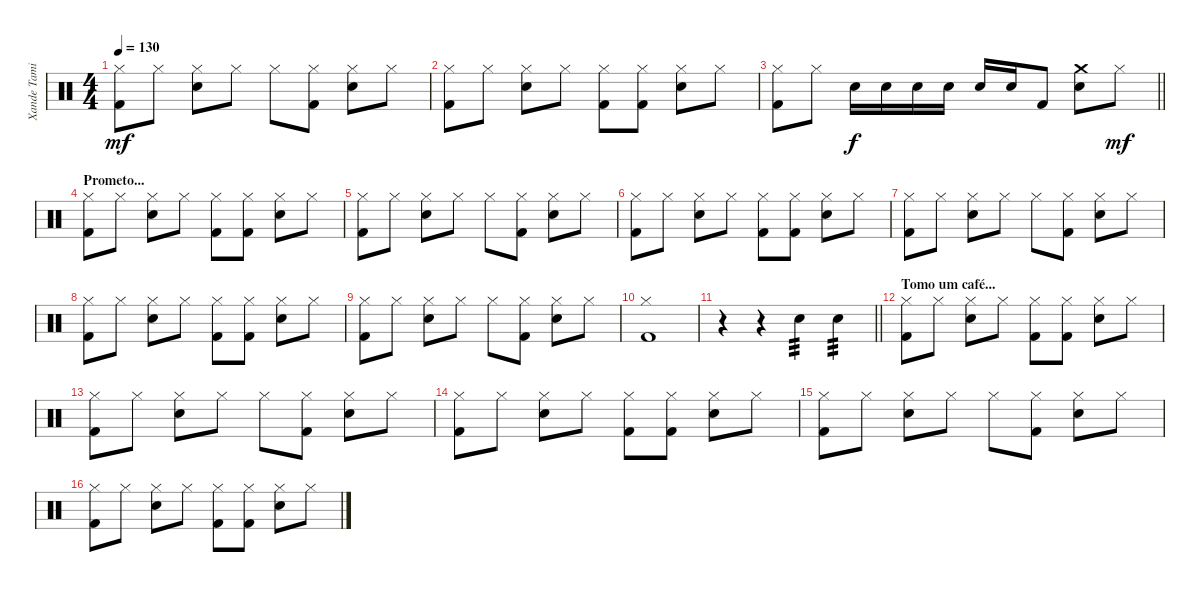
\track ("Xande Tamietti" "Xande Tami") {instrument percussion}
\staff {score}
\articulation defaults
\ts (4 4)
\tempo 130
\clef neutral
\ks c
("Hi-Hat (closed)" "Kick (hit) 2").8{dy mf} "Hi-Hat (closed)".8 ("Hi-Hat (closed)" "Electric Snare (hit)").8 "Hi-Hat (closed)".8 "Hi-Hat (closed)".8 ("Hi-Hat (closed)" "Kick (hit) 2").8 ("Hi-Hat (closed)" "Electric Snare (hit)").8 "Hi-Hat (closed)".8 |
("Hi-Hat (closed)" "Kick (hit) 2").8 "Hi-Hat (closed)".8 ("Hi-Hat (closed)" "Electric Snare (hit)").8 "Hi-Hat (closed)".8 ("Hi-Hat (closed)" "Kick (hit) 2").8 ("Hi-Hat (closed)" "Kick (hit) 2").8 ("Hi-Hat (closed)" "Electric Snare (hit)").8 "Hi-Hat (closed)".8 |
\barLineRight lightlight
("Hi-Hat (closed)" "Kick (hit) 2").8 "Hi-Hat (closed)".8 "Electric Snare (hit)".16{dy f} "Electric Snare (hit)".16 "Electric Snare (hit)".16 "Electric Snare (hit)".16 "Electric Snare (hit)".16 "Electric Snare (hit)".16 "Kick (hit) 2".8 ("Crash medium (hit)" "Electric Snare (hit)").8 "Hi-Hat (closed)".8{dy mf} |
\section ("" "Prometo...")
("Hi-Hat (closed)" "Kick (hit) 2").8 "Hi-Hat (closed)".8 ("Hi-Hat (closed)" "Electric Snare (hit)").8 "Hi-Hat (closed)".8 ("Hi-Hat (closed)" "Kick (hit) 2").8 ("Hi-Hat (closed)" "Kick (hit) 2").8 ("Hi-Hat (closed)" "Electric Snare (hit)").8 "Hi-Hat (closed)".8 |
("Hi-Hat (closed)" "Kick (hit) 2").8 "Hi-Hat (closed)".8 ("Hi-Hat (closed)" "Electric Snare (hit)").8 "Hi-Hat (closed)".8 "Hi-Hat (closed)".8 ("Hi-Hat (closed)" "Kick (hit) 2").8 ("Hi-Hat (closed)" "Electric Snare (hit)").8 "Hi-Hat (closed)".8 |
("Hi-Hat (closed)" "Kick (hit) 2").8 "Hi-Hat (closed)".8 ("Hi-Hat (closed)" "Electric Snare (hit)").8 "Hi-Hat (closed)".8 ("Hi-Hat (closed)" "Kick (hit) 2").8 ("Hi-Hat (closed)" "Kick (hit) 2").8 ("Hi-Hat (closed)" "Electric Snare (hit)").8 "Hi-Hat (closed)".8 |
("Hi-Hat (closed)" "Kick (hit) 2").8 "Hi-Hat (closed)".8 ("Hi-Hat (closed)" "Electric Snare (hit)").8 "Hi-Hat (closed)".8 "Hi-Hat (closed)".8 ("Hi-Hat (closed)" "Kick (hit) 2").8 ("Hi-Hat (closed)" "Electric Snare (hit)").8 "Hi-Hat (closed)".8 |
("Hi-Hat (closed)" "Kick (hit) 2").8 "Hi-Hat (closed)".8 ("Hi-Hat (closed)" "Electric Snare (hit)").8 "Hi-Hat (closed)".8 ("Hi-Hat (closed)" "Kick (hit) 2").8 ("Hi-Hat (closed)" "Kick (hit) 2").8 ("Hi-Hat (closed)" "Electric Snare (hit)").8 "Hi-Hat (closed)".8 |
("Hi-Hat (closed)" "Kick (hit) 2").8 "Hi-Hat (closed)".8 ("Hi-Hat (closed)" "Electric Snare (hit)").8 "Hi-Hat (closed)".8 "Hi-Hat (closed)".8 ("Hi-Hat (closed)" "Kick (hit) 2").8 ("Hi-Hat (closed)" "Electric Snare (hit)").8 "Hi-Hat (closed)".8 |
("Hi-Hat (closed)" "Kick (hit) 2").1 |
\barLineRight lightlight
r.4 r.4 "Electric Snare (hit)".4{tp 3} "Electric Snare (hit)".4{tp 3} |
\section ("" "Tomo um café...")
("Hi-Hat (closed)" "Kick (hit) 2").8 "Hi-Hat (closed)".8 ("Hi-Hat (closed)" "Electric Snare (hit)").8 "Hi-Hat (closed)".8 ("Hi-Hat (closed)" "Kick (hit) 2").8 ("Hi-Hat (closed)" "Kick (hit) 2").8 ("Hi-Hat (closed)" "Electric Snare (hit)").8 "Hi-Hat (closed)".8 |
("Hi-Hat (closed)" "Kick (hit) 2").8 "Hi-Hat (closed)".8 ("Hi-Hat (closed)" "Electric Snare (hit)").8 "Hi-Hat (closed)".8 "Hi-Hat (closed)".8 ("Hi-Hat (closed)" "Kick (hit) 2").8 ("Hi-Hat (closed)" "Electric Snare (hit)").8 "Hi-Hat (closed)".8 |
("Hi-Hat (closed)" "Kick (hit) 2").8 "Hi-Hat (closed)".8 ("Hi-Hat (closed)" "Electric Snare (hit)").8 "Hi-Hat (closed)".8 ("Hi-Hat (closed)" "Kick (hit) 2").8 ("Hi-Hat (closed)" "Kick (hit) 2").8 ("Hi-Hat (closed)" "Electric Snare (hit)").8 "Hi-Hat (closed)".8 |
("Hi-Hat (closed)" "Kick (hit) 2").8 "Hi-Hat (closed)".8 ("Hi-Hat (closed)" "Electric Snare (hit)").8 "Hi-Hat (closed)".8 "Hi-Hat (closed)".8 ("Hi-Hat (closed)" "Kick (hit) 2").8 ("Hi-Hat (closed)" "Electric Snare (hit)").8 "Hi-Hat (closed)".8 |
("Hi-Hat (closed)" "Kick (hit) 2").8 "Hi-Hat (closed)".8 ("Hi-Hat (closed)" "Electric Snare (hit)").8 "Hi-Hat (closed)".8 ("Hi-Hat (closed)" "Kick (hit) 2").8 ("Hi-Hat (closed)" "Kick (hit) 2").8 ("Hi-Hat (closed)" "Electric Snare (hit)").8 "Hi-Hat (closed)".8
